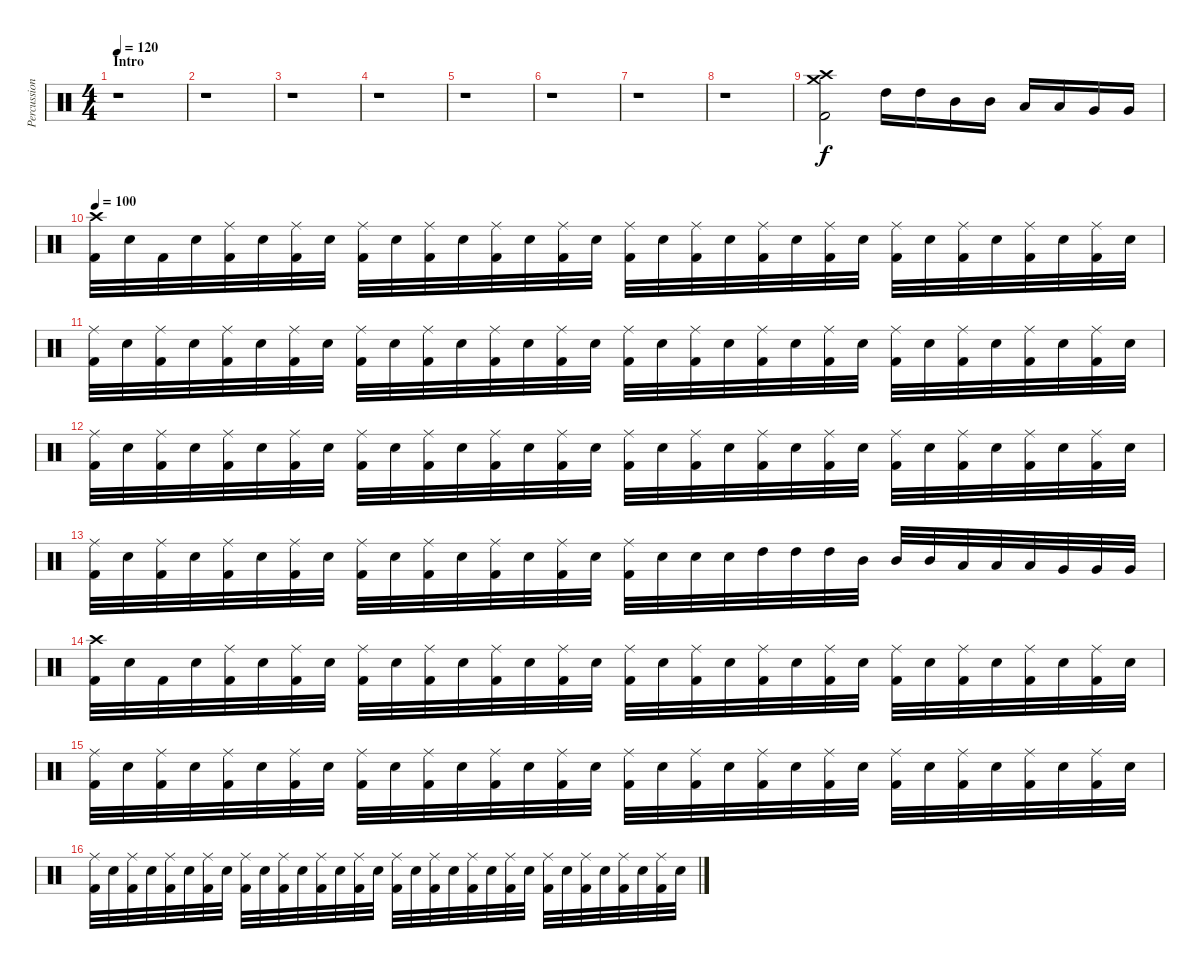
\track ("Percussion" "Percussion") {instrument percussion}
\staff {score}
\articulation defaults
\ts (4 4)
\section ("" "Intro")
\tempo 120
\tempo 125
\tempo 120
\clef neutral
\ks c
r.1{dy f} |
r.1 |
r.1 |
r.1 |
r.1 |
r.1 |
r.1 |
r.1 |
("Crash high (hit)" "Crash medium (hit)" "Kick (hit) 2").2 "High Tom (hit)".16 "High Tom (hit)".16 "Mid Tom (hit)".16 "Mid Tom (hit)".16 "Low Tom (hit)".16 "Low Tom (hit)".16 "Very Low Tom (hit)".16 "Very Low Tom (hit)".16 |
\tempo 100
("Crash high (hit)" "Kick (hit) 2").32 "Snare (hit) 2".32 "Kick (hit) 2".32 "Snare (hit) 2".32 ("Ride (middle)" "Kick (hit) 2").32 "Snare (hit) 2".32 ("Ride (middle)" "Kick (hit) 2").32 "Snare (hit) 2".32 ("Ride (middle)" "Kick (hit) 2").32 "Snare (hit) 2".32 ("Ride (middle)" "Kick (hit) 2").32 "Snare (hit) 2".32 ("Ride (middle)" "Kick (hit) 2").32 "Snare (hit) 2".32 ("Ride (middle)" "Kick (hit) 2").32 "Snare (hit) 2".32 ("Ride (middle)" "Kick (hit) 2").32 "Snare (hit) 2".32 ("Ride (middle)" "Kick (hit) 2").32 "Snare (hit) 2".32 ("Ride (middle)" "Kick (hit) 2").32 "Snare (hit) 2".32 ("Ride (middle)" "Kick (hit) 2").32 "Snare (hit) 2".32 ("Ride (middle)" "Kick (hit) 2").32 "Snare (hit) 2".32 ("Ride (middle)" "Kick (hit) 2").32 "Snare (hit) 2".32 ("Ride (middle)" "Kick (hit) 2").32 "Snare (hit) 2".32 ("Ride (middle)" "Kick (hit) 2").32 "Snare (hit) 2".32 |
("Ride (middle)" "Kick (hit) 2").32 "Snare (hit) 2".32 ("Ride (middle)" "Kick (hit) 2").32 "Snare (hit) 2".32 ("Ride (middle)" "Kick (hit) 2").32 "Snare (hit) 2".32 ("Ride (middle)" "Kick (hit) 2").32 "Snare (hit) 2".32 ("Ride (middle)" "Kick (hit) 2").32 "Snare (hit) 2".32 ("Ride (middle)" "Kick (hit) 2").32 "Snare (hit) 2".32 ("Ride (middle)" "Kick (hit) 2").32 "Snare (hit) 2".32 ("Ride (middle)" "Kick (hit) 2").32 "Snare (hit) 2".32 ("Ride (middle)" "Kick (hit) 2").32 "Snare (hit) 2".32 ("Ride (middle)" "Kick (hit) 2").32 "Snare (hit) 2".32 ("Ride (middle)" "Kick (hit) 2").32 "Snare (hit) 2".32 ("Ride (middle)" "Kick (hit) 2").32 "Snare (hit) 2".32 ("Ride (middle)" "Kick (hit) 2").32 "Snare (hit) 2".32 ("Ride (middle)" "Kick (hit) 2").32 "Snare (hit) 2".32 ("Ride (middle)" "Kick (hit) 2").32 "Snare (hit) 2".32 ("Ride (middle)" "Kick (hit) 2").32 "Snare (hit) 2".32 |
("Ride (middle)" "Kick (hit) 2").32 "Snare (hit) 2".32 ("Ride (middle)" "Kick (hit) 2").32 "Snare (hit) 2".32 ("Ride (middle)" "Kick (hit) 2").32 "Snare (hit) 2".32 ("Ride (middle)" "Kick (hit) 2").32 "Snare (hit) 2".32 ("Ride (middle)" "Kick (hit) 2").32 "Snare (hit) 2".32 ("Ride (middle)" "Kick (hit) 2").32 "Snare (hit) 2".32 ("Ride (middle)" "Kick (hit) 2").32 "Snare (hit) 2".32 ("Ride (middle)" "Kick (hit) 2").32 "Snare (hit) 2".32 ("Ride (middle)" "Kick (hit) 2").32 "Snare (hit) 2".32 ("Ride (middle)" "Kick (hit) 2").32 "Snare (hit) 2".32 ("Ride (middle)" "Kick (hit) 2").32 "Snare (hit) 2".32 ("Ride (middle)" "Kick (hit) 2").32 "Snare (hit) 2".32 ("Ride (middle)" "Kick (hit) 2").32 "Snare (hit) 2".32 ("Ride (middle)" "Kick (hit) 2").32 "Snare (hit) 2".32 ("Ride (middle)" "Kick (hit) 2").32 "Snare (hit) 2".32 ("Ride (middle)" "Kick (hit) 2").32 "Snare (hit) 2".32 |
("Ride (middle)" "Kick (hit) 2").32 "Snare (hit) 2".32 ("Ride (middle)" "Kick (hit) 2").32 "Snare (hit) 2".32 ("Ride (middle)" "Kick (hit) 2").32 "Snare (hit) 2".32 ("Ride (middle)" "Kick (hit) 2").32 "Snare (hit) 2".32 ("Ride (middle)" "Kick (hit) 2").32 "Snare (hit) 2".32 ("Ride (middle)" "Kick (hit) 2").32 "Snare (hit) 2".32 ("Ride (middle)" "Kick (hit) 2").32 "Snare (hit) 2".32 ("Ride (middle)" "Kick (hit) 2").32 "Snare (hit) 2".32 ("Ride (middle)" "Kick (hit) 2").32 "Snare (hit) 2".32 "Snare (hit) 2".32 "Snare (hit) 2".32 "High Tom (hit)".32 "High Tom (hit)".32 "High Tom (hit)".32 "Mid Tom (hit)".32 "Mid Tom (hit)".32 "Mid Tom (hit)".32 "Low Tom (hit)".32 "Low Tom (hit)".32 "Low Tom (hit)".32 "Very Low Tom (hit)".32 "Very Low Tom (hit)".32 "Very Low Tom (hit)".32 |
("Crash high (hit)" "Kick (hit) 2").32 "Snare (hit) 2".32 "Kick (hit) 2".32 "Snare (hit) 2".32 ("Ride (middle)" "Kick (hit) 2").32 "Snare (hit) 2".32 ("Ride (middle)" "Kick (hit) 2").32 "Snare (hit) 2".32 ("Ride (middle)" "Kick (hit) 2").32 "Snare (hit) 2".32 ("Ride (middle)" "Kick (hit) 2").32 "Snare (hit) 2".32 ("Ride (middle)" "Kick (hit) 2").32 "Snare (hit) 2".32 ("Ride (middle)" "Kick (hit) 2").32 "Snare (hit) 2".32 ("Ride (middle)" "Kick (hit) 2").32 "Snare (hit) 2".32 ("Ride (middle)" "Kick (hit) 2").32 "Snare (hit) 2".32 ("Ride (middle)" "Kick (hit) 2").32 "Snare (hit) 2".32 ("Ride (middle)" "Kick (hit) 2").32 "Snare (hit) 2".32 ("Ride (middle)" "Kick (hit) 2").32 "Snare (hit) 2".32 ("Ride (middle)" "Kick (hit) 2").32 "Snare (hit) 2".32 ("Ride (middle)" "Kick (hit) 2").32 "Snare (hit) 2".32 ("Ride (middle)" "Kick (hit) 2").32 "Snare (hit) 2".32 |
("Ride (middle)" "Kick (hit) 2").32 "Snare (hit) 2".32 ("Ride (middle)" "Kick (hit) 2").32 "Snare (hit) 2".32 ("Ride (middle)" "Kick (hit) 2").32 "Snare (hit) 2".32 ("Ride (middle)" "Kick (hit) 2").32 "Snare (hit) 2".32 ("Ride (middle)" "Kick (hit) 2").32 "Snare (hit) 2".32 ("Ride (middle)" "Kick (hit) 2").32 "Snare (hit) 2".32 ("Ride (middle)" "Kick (hit) 2").32 "Snare (hit) 2".32 ("Ride (middle)" "Kick (hit) 2").32 "Snare (hit) 2".32 ("Ride (middle)" "Kick (hit) 2").32 "Snare (hit) 2".32 ("Ride (middle)" "Kick (hit) 2").32 "Snare (hit) 2".32 ("Ride (middle)" "Kick (hit) 2").32 "Snare (hit) 2".32 ("Ride (middle)" "Kick (hit) 2").32 "Snare (hit) 2".32 ("Ride (middle)" "Kick (hit) 2").32 "Snare (hit) 2".32 ("Ride (middle)" "Kick (hit) 2").32 "Snare (hit) 2".32 ("Ride (middle)" "Kick (hit) 2").32 "Snare (hit) 2".32 ("Ride (middle)" "Kick (hit) 2").32 "Snare (hit) 2".32 |
("Ride (middle)" "Kick (hit) 2").32 "Snare (hit) 2".32 ("Ride (middle)" "Kick (hit) 2").32 "Snare (hit) 2".32 ("Ride (middle)" "Kick (hit) 2").32 "Snare (hit) 2".32 ("Ride (middle)" "Kick (hit) 2").32 "Snare (hit) 2".32 ("Ride (middle)" "Kick (hit) 2").32 "Snare (hit) 2".32 ("Ride (middle)" "Kick (hit) 2").32 "Snare (hit) 2".32 ("Ride (middle)" "Kick (hit) 2").32 "Snare (hit) 2".32 ("Ride (middle)" "Kick (hit) 2").32 "Snare (hit) 2".32 ("Ride (middle)" "Kick (hit) 2").32 "Snare (hit) 2".32 ("Ride (middle)" "Kick (hit) 2").32 "Snare (hit) 2".32 ("Ride (middle)" "Kick (hit) 2").32 "Snare (hit) 2".32 ("Ride (middle)" "Kick (hit) 2").32 "Snare (hit) 2".32 ("Ride (middle)" "Kick (hit) 2").32 "Snare (hit) 2".32 ("Ride (middle)" "Kick (hit) 2").32 "Snare (hit) 2".32 ("Ride (middle)" "Kick (hit) 2").32 "Snare (hit) 2".32 ("Ride (middle)" "Kick (hit) 2").32 "Snare (hit) 2".32
